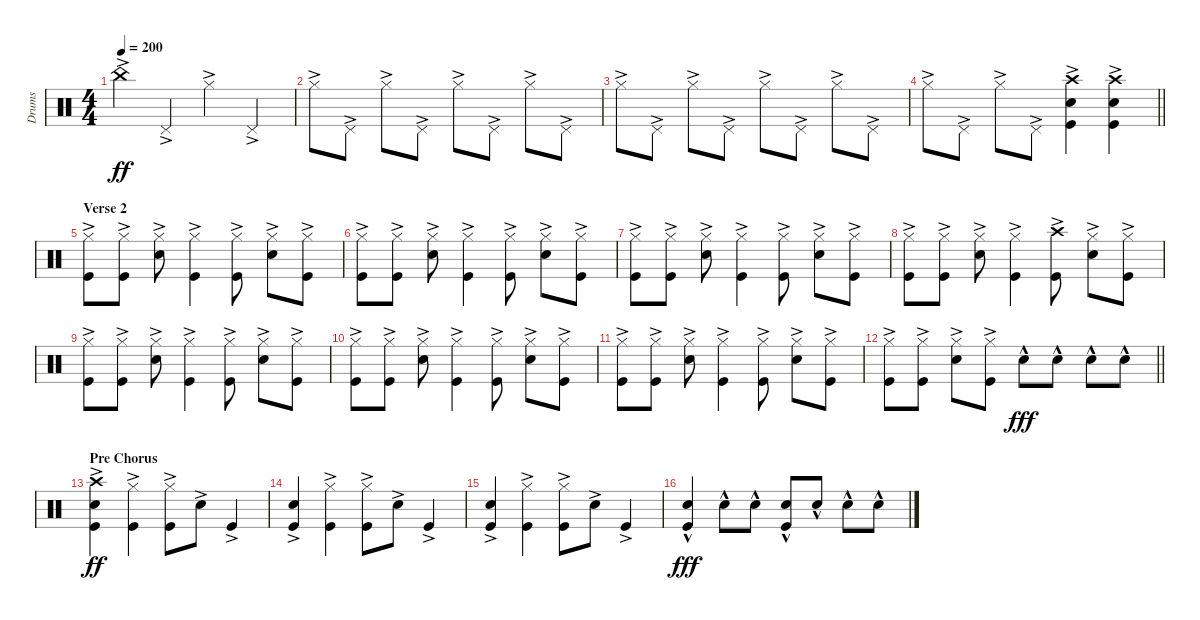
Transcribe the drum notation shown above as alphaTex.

\track ("Drums" "Drums") {instrument percussion}
\staff {score}
\articulation defaults
\ts (4 4)
\tempo 200
\clef neutral
\ks c "China (hit)"{ac}.4{dy ff} "Pedal Hi-Hat (hit)"{ac}.4 "Hi-Hat (closed)"{ac}.4 "Pedal Hi-Hat (hit)"{ac}.4
|
"Hi-Hat (closed)"{ac}.8 "Pedal Hi-Hat (hit)"{ac}.8 "Hi-Hat (closed)"{ac}.8 "Pedal Hi-Hat (hit)"{ac}.8 "Hi-Hat (closed)"{ac}.8 "Pedal Hi-Hat (hit)"{ac}.8 "Hi-Hat (closed)"{ac}.8 "Pedal Hi-Hat (hit)"{ac}.8 |
"Hi-Hat (closed)"{ac}.8 "Pedal Hi-Hat (hit)"{ac}.8 "Hi-Hat (closed)"{ac}.8 "Pedal Hi-Hat (hit)"{ac}.8 "Hi-Hat (closed)"{ac}.8 "Pedal Hi-Hat (hit)"{ac}.8 "Hi-Hat (closed)"{ac}.8 "Pedal Hi-Hat (hit)"{ac}.8 |
\barLineRight lightlight "Hi-Hat (closed)"{ac}.8 "Pedal Hi-Hat (hit)"{ac}.8 "Hi-Hat (closed)"{ac}.8 "Pedal Hi-Hat (hit)"{ac}.8
("Crash high (hit)"{ac} "Snare (hit) 2"{ac} "Kick (hit)"{ac}).4 ("Crash high (hit)"{ac} "Snare (hit) 2"{ac} "Kick (hit)"{ac}).4 |
\section ("" "Verse 2")
("Hi-Hat (closed)"{ac} "Kick (hit)"{ac}).8 ("Hi-Hat (closed)"{ac} "Kick (hit)"{ac}).8 ("Hi-Hat (closed)"{ac} "Snare (hit) 2"{ac}).8 ("Hi-Hat (closed)"{ac} "Kick (hit)"{ac}).4 ("Hi-Hat (closed)"{ac} "Kick (hit)"{ac}).8 ("Hi-Hat (closed)"{ac} "Snare (hit) 2"{ac}).8 ("Hi-Hat (closed)"{ac} "Kick (hit)"{ac}).8 |
("Hi-Hat (closed)"{ac} "Kick (hit)"{ac}).8 ("Hi-Hat (closed)"{ac} "Kick (hit)"{ac}).8 ("Hi-Hat (closed)"{ac} "Snare (hit) 2"{ac}).8 ("Hi-Hat (closed)"{ac} "Kick (hit)"{ac}).4 ("Hi-Hat (closed)"{ac} "Kick (hit)"{ac}).8 ("Hi-Hat (closed)"{ac} "Snare (hit) 2"{ac}).8 ("Hi-Hat (closed)"{ac} "Kick (hit)"{ac}).8 |
("Hi-Hat (closed)"{ac} "Kick (hit)"{ac}).8 ("Hi-Hat (closed)"{ac} "Kick (hit)"{ac}).8 ("Hi-Hat (closed)"{ac} "Snare (hit) 2"{ac}).8 ("Hi-Hat (closed)"{ac} "Kick (hit)"{ac}).4 ("Hi-Hat (closed)"{ac} "Kick (hit)"{ac}).8 ("Hi-Hat (closed)"{ac} "Snare (hit) 2"{ac}).8 ("Hi-Hat (closed)"{ac} "Kick (hit)"{ac}).8 |
("Hi-Hat (closed)"{ac} "Kick (hit)"{ac}).8 ("Hi-Hat (closed)"{ac} "Kick (hit)"{ac}).8 ("Hi-Hat (closed)"{ac} "Snare (hit) 2"{ac}).8 ("Hi-Hat (closed)"{ac} "Kick (hit)"{ac}).4 ("Crash high (hit)" "Kick (hit)"{ac}).8 ("Hi-Hat (closed)"{ac} "Snare (hit) 2"{ac}).8 ("Hi-Hat (closed)" "Kick (hit)"{ac}).8 |
("Hi-Hat (closed)"{ac} "Kick (hit)"{ac}).8 ("Hi-Hat (closed)"{ac} "Kick (hit)"{ac}).8 ("Hi-Hat (closed)"{ac} "Snare (hit) 2"{ac}).8 ("Hi-Hat (closed)"{ac} "Kick (hit)"{ac}).4 ("Hi-Hat (closed)"{ac} "Kick (hit)"{ac}).8 ("Hi-Hat (closed)"{ac} "Snare (hit) 2"{ac}).8 ("Hi-Hat (closed)"{ac} "Kick (hit)"{ac}).8 |
("Hi-Hat (closed)"{ac} "Kick (hit)"{ac}).8 ("Hi-Hat (closed)"{ac} "Kick (hit)"{ac}).8 ("Hi-Hat (closed)"{ac} "Snare (hit) 2"{ac}).8 ("Hi-Hat (closed)"{ac} "Kick (hit)"{ac}).4 ("Hi-Hat (closed)"{ac} "Kick (hit)"{ac}).8 ("Hi-Hat (closed)"{ac} "Snare (hit) 2"{ac}).8 ("Hi-Hat (closed)"{ac} "Kick (hit)"{ac}).8 |
("Hi-Hat (closed)"{ac} "Kick (hit)"{ac}).8 ("Hi-Hat (closed)"{ac} "Kick (hit)"{ac}).8 ("Hi-Hat (closed)"{ac} "Snare (hit) 2"{ac}).8 ("Hi-Hat (closed)"{ac} "Kick (hit)"{ac}).4 ("Hi-Hat (closed)"{ac} "Kick (hit)"{ac}).8 ("Hi-Hat (closed)"{ac} "Snare (hit) 2"{ac}).8 ("Hi-Hat (closed)"{ac} "Kick (hit)"{ac}).8 |
\barLineRight lightlight
("Hi-Hat (closed)"{ac} "Kick (hit)"{ac}).8 ("Hi-Hat (closed)"{ac} "Kick (hit)"{ac}).8 ("Hi-Hat (closed)"{ac} "Snare (hit) 2"{ac}).8 ("Hi-Hat (closed)"{ac} "Kick (hit)"{ac}).8 "Snare (hit) 2"{hac}.8{dy fff} "Snare (hit) 2"{hac}.8 "Snare (hit) 2"{hac}.8 "Snare (hit) 2"{hac}.8 |
\section ("" "Pre Chorus")
("Kick (hit)"{ac} "Crash high (hit)"{ac} "Snare (hit) 2"{ac}).4{dy ff} ("Hi-Hat (closed)"{ac} "Kick (hit)"{ac}).4 ("Hi-Hat (closed)"{ac} "Kick (hit)"{ac}).8 "Snare (hit) 2"{ac}.8 "Kick (hit)"{ac}.4 |
("Kick (hit)"{ac} "Snare (hit) 2"{ac}).4 ("Hi-Hat (closed)"{ac} "Kick (hit)"{ac}).4 ("Hi-Hat (closed)"{ac} "Kick (hit)"{ac}).8 "Snare (hit) 2"{ac}.8 "Kick (hit)"{ac}.4 |
("Kick (hit)"{ac} "Snare (hit) 2"{ac}).4 ("Hi-Hat (closed)"{ac} "Kick (hit)"{ac}).4 ("Hi-Hat (closed)"{ac} "Kick (hit)"{ac}).8 "Snare (hit) 2"{ac}.8 "Kick (hit)"{ac}.4 |
("Kick (hit)"{hac} "Snare (hit) 2"{hac}).4{dy fff} "Snare (hit) 2"{hac}.8 "Snare (hit) 2"{hac}.8 ("Snare (hit) 2"{hac} "Kick (hit)"{hac}).8 "Snare (hit) 2"{hac}.8 "Snare (hit) 2"{hac}.8 "Snare (hit) 2"{hac}.8
